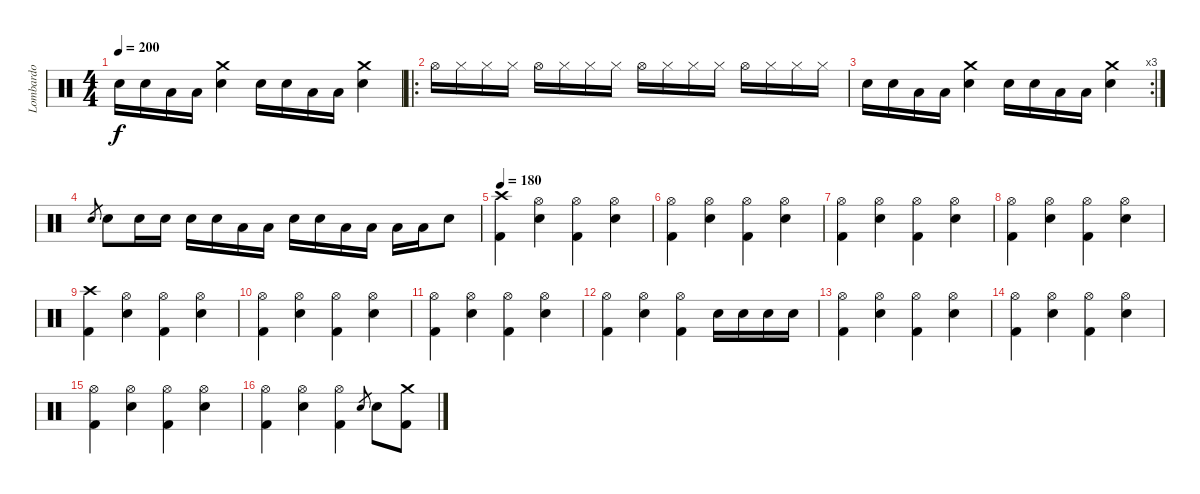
\track ("Lombardo" "Lombardo") {instrument percussion}
\staff {score}
\articulation defaults
\ts (4 4)
\tempo 200
\clef neutral
\ks c "Electric Snare (hit)".16{dy f} "Electric Snare (hit)".16 "Low Tom (hit)".16 "Low Tom (hit)".16
("Crash medium (hit)" "Electric Snare (hit)").4 "Electric Snare (hit)".16 "Electric Snare (hit)".16 "Low Tom (hit)".16 "Low Tom (hit)".16 ("Crash medium (hit)" "Electric Snare (hit)").4 |
\ro "Hi-Hat (open)".16 "Hi-Hat (closed)".16 "Hi-Hat (closed)".16 "Hi-Hat (closed)".16 "Hi-Hat (open)".16 "Hi-Hat (closed)".16 "Hi-Hat (closed)".16 "Hi-Hat (closed)".16 "Hi-Hat (open)".16 "Hi-Hat (closed)".16 "Hi-Hat (closed)".16 "Hi-Hat (closed)".16 "Hi-Hat (open)".16 "Hi-Hat (closed)".16 "Hi-Hat (closed)".16 "Hi-Hat (closed)".16
|
\rc 3 "Electric Snare (hit)".16 "Electric Snare (hit)".16 "Low Tom (hit)".16 "Low Tom (hit)".16
("Crash medium (hit)" "Electric Snare (hit)").4 "Electric Snare (hit)".16 "Electric Snare (hit)".16 "Low Tom (hit)".16 "Low Tom (hit)".16 ("Crash medium (hit)" "Electric Snare (hit)").4 |
"Electric Snare (hit)".8{gr} "Electric Snare (hit)".8 "Electric Snare (hit)".16 "Electric Snare (hit)".16 "Electric Snare (hit)".16 "Electric Snare (hit)".16 "Low Tom (hit)".16 "Low Tom (hit)".16 "Electric Snare (hit)".16 "Electric Snare (hit)".16 "Low Tom (hit)".16 "Low Tom (hit)".16 "Low Tom (hit)".16 "Low Tom (hit)".16 "Electric Snare (hit)".8 |
\tempo 180
("Crash high (hit)" "Kick (hit) 2").4 ("Electric Snare (hit)" "Hi-Hat (open)").4 ("Kick (hit) 2" "Hi-Hat (open)").4 ("Electric Snare (hit)" "Hi-Hat (open)").4 |
("Hi-Hat (open)" "Kick (hit) 2").4 ("Electric Snare (hit)" "Hi-Hat (open)").4 ("Kick (hit) 2" "Hi-Hat (open)").4 ("Electric Snare (hit)" "Hi-Hat (open)").4 |
("Hi-Hat (open)" "Kick (hit) 2").4 ("Electric Snare (hit)" "Hi-Hat (open)").4 ("Kick (hit) 2" "Hi-Hat (open)").4 ("Electric Snare (hit)" "Hi-Hat (open)").4 |
("Hi-Hat (open)" "Kick (hit) 2").4 ("Electric Snare (hit)" "Hi-Hat (open)").4 ("Kick (hit) 2" "Hi-Hat (open)").4 ("Electric Snare (hit)" "Hi-Hat (open)").4 |
("Crash high (hit)" "Kick (hit) 2").4 ("Electric Snare (hit)" "Hi-Hat (open)").4 ("Kick (hit) 2" "Hi-Hat (open)").4 ("Electric Snare (hit)" "Hi-Hat (open)").4 |
("Hi-Hat (open)" "Kick (hit) 2").4 ("Electric Snare (hit)" "Hi-Hat (open)").4 ("Kick (hit) 2" "Hi-Hat (open)").4 ("Electric Snare (hit)" "Hi-Hat (open)").4 |
("Hi-Hat (open)" "Kick (hit) 2").4 ("Electric Snare (hit)" "Hi-Hat (open)").4 ("Kick (hit) 2" "Hi-Hat (open)").4 ("Electric Snare (hit)" "Hi-Hat (open)").4 |
("Hi-Hat (open)" "Kick (hit) 2").4 ("Electric Snare (hit)" "Hi-Hat (open)").4 ("Kick (hit) 2" "Hi-Hat (open)").4 "Electric Snare (hit)".16 "Electric Snare (hit)".16 "Electric Snare (hit)".16 "Electric Snare (hit)".16 |
("Hi-Hat (open)" "Kick (hit) 2").4 ("Electric Snare (hit)" "Hi-Hat (open)").4 ("Kick (hit) 2" "Hi-Hat (open)").4 ("Electric Snare (hit)" "Hi-Hat (open)").4 |
("Hi-Hat (open)" "Kick (hit) 2").4 ("Electric Snare (hit)" "Hi-Hat (open)").4 ("Kick (hit) 2" "Hi-Hat (open)").4 ("Electric Snare (hit)" "Hi-Hat (open)").4 |
("Hi-Hat (open)" "Kick (hit) 2").4 ("Electric Snare (hit)" "Hi-Hat (open)").4 ("Kick (hit) 2" "Hi-Hat (open)").4 ("Electric Snare (hit)" "Hi-Hat (open)").4 |
("Hi-Hat (open)" "Kick (hit) 2").4 ("Electric Snare (hit)" "Hi-Hat (open)").4 ("Kick (hit) 2" "Hi-Hat (open)").4 "Electric Snare (hit)".8{gr} "Electric Snare (hit)".8 ("Crash medium (hit)" "Kick (hit) 2").8
